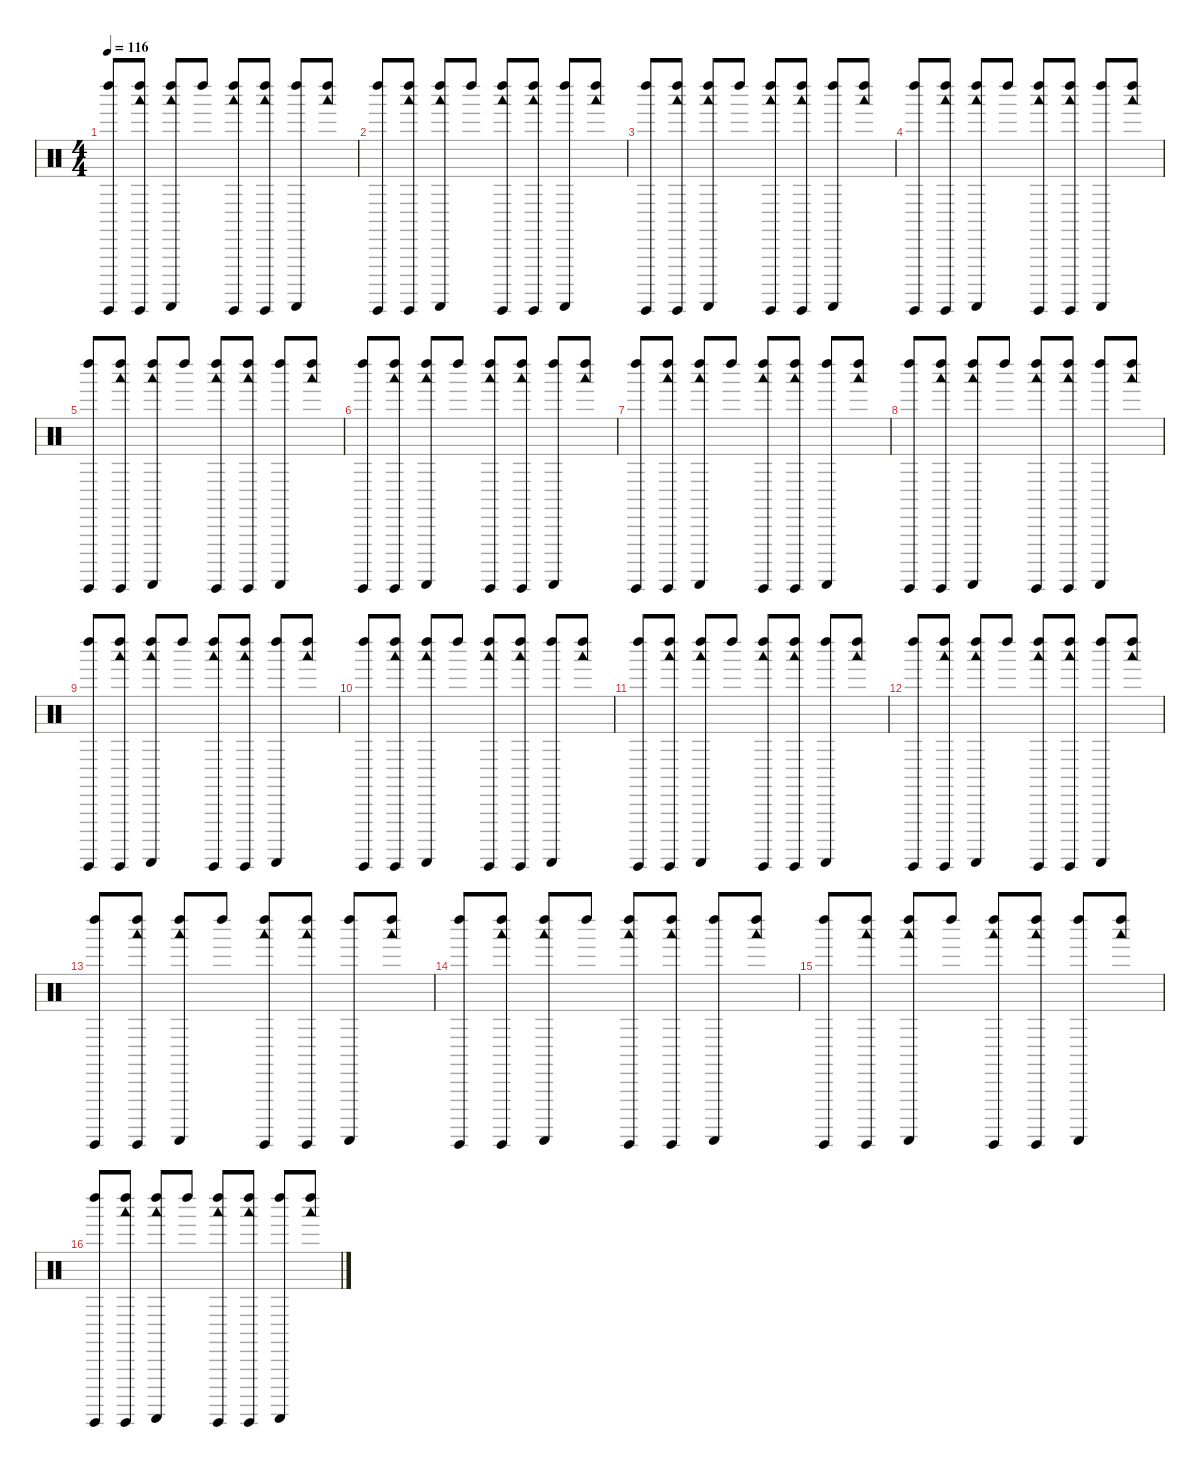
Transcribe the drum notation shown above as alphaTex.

\defaultSystemsLayout 4
\hideDynamics
\bracketExtendMode nobrackets
\singleTrackTrackNamePolicy hidden
\multiTrackTrackNamePolicy hidden
\firstSystemTrackNameMode fullname
\firstSystemTrackNameOrientation horizontal
\otherSystemsTrackNameOrientation horizontal
\track ("Percussions" "drm.") {instrument percussion}
\staff {score}
\articulation defaults
\ts (4 4)
\tempo 116
\clef neutral
\ks c
("Guiro (hit)" "Left Maraca (hit)").8{dy f beam Up} ("Guiro (hit)" "Left Maraca (hit)" "Woodblock low (hit)").8{beam Up} ("Guiro (scrap-return)" "Left Maraca (hit)" "Woodblock low (hit)").8{beam Up} "Left Maraca (hit)".8{beam Up} ("Guiro (hit)" "Left Maraca (hit)" "Woodblock low (hit)").8{beam Up} ("Guiro (hit)" "Left Maraca (hit)" "Woodblock low (hit)").8{beam Up} ("Guiro (scrap-return)" "Left Maraca (hit)").8{beam Up} ("Left Maraca (hit)" "Woodblock low (hit)").8{beam Up} |
("Guiro (hit)" "Left Maraca (hit)").8{beam Up} ("Guiro (hit)" "Left Maraca (hit)" "Woodblock low (hit)").8{beam Up} ("Guiro (scrap-return)" "Left Maraca (hit)" "Woodblock low (hit)").8{beam Up} "Left Maraca (hit)".8{beam Up} ("Guiro (hit)" "Left Maraca (hit)" "Woodblock low (hit)").8{beam Up} ("Guiro (hit)" "Left Maraca (hit)" "Woodblock low (hit)").8{beam Up} ("Guiro (scrap-return)" "Left Maraca (hit)").8{beam Up} ("Left Maraca (hit)" "Woodblock low (hit)").8{beam Up} |
("Guiro (hit)" "Left Maraca (hit)").8{beam Up} ("Guiro (hit)" "Left Maraca (hit)" "Woodblock low (hit)").8{beam Up} ("Guiro (scrap-return)" "Left Maraca (hit)" "Woodblock low (hit)").8{beam Up} "Left Maraca (hit)".8{beam Up} ("Guiro (hit)" "Left Maraca (hit)" "Woodblock low (hit)").8{beam Up} ("Guiro (hit)" "Left Maraca (hit)" "Woodblock low (hit)").8{beam Up} ("Guiro (scrap-return)" "Left Maraca (hit)").8{beam Up} ("Left Maraca (hit)" "Woodblock low (hit)").8{beam Up} |
("Guiro (hit)" "Left Maraca (hit)").8{beam Up} ("Guiro (hit)" "Left Maraca (hit)" "Woodblock low (hit)").8{beam Up} ("Guiro (scrap-return)" "Left Maraca (hit)" "Woodblock low (hit)").8{beam Up} "Left Maraca (hit)".8{beam Up} ("Guiro (hit)" "Left Maraca (hit)" "Woodblock low (hit)").8{beam Up} ("Guiro (hit)" "Left Maraca (hit)" "Woodblock low (hit)").8{beam Up} ("Guiro (scrap-return)" "Left Maraca (hit)").8{beam Up} ("Left Maraca (hit)" "Woodblock low (hit)").8{beam Up} |
("Guiro (hit)" "Left Maraca (hit)").8{beam Up} ("Guiro (hit)" "Left Maraca (hit)" "Woodblock low (hit)").8{beam Up} ("Guiro (scrap-return)" "Left Maraca (hit)" "Woodblock low (hit)").8{beam Up} "Left Maraca (hit)".8{beam Up} ("Guiro (hit)" "Left Maraca (hit)" "Woodblock low (hit)").8{beam Up} ("Guiro (hit)" "Left Maraca (hit)" "Woodblock low (hit)").8{beam Up} ("Guiro (scrap-return)" "Left Maraca (hit)").8{beam Up} ("Left Maraca (hit)" "Woodblock low (hit)").8{beam Up} |
("Guiro (hit)" "Left Maraca (hit)").8{beam Up} ("Guiro (hit)" "Left Maraca (hit)" "Woodblock low (hit)").8{beam Up} ("Guiro (scrap-return)" "Left Maraca (hit)" "Woodblock low (hit)").8{beam Up} "Left Maraca (hit)".8{beam Up} ("Guiro (hit)" "Left Maraca (hit)" "Woodblock low (hit)").8{beam Up} ("Guiro (hit)" "Left Maraca (hit)" "Woodblock low (hit)").8{beam Up} ("Guiro (scrap-return)" "Left Maraca (hit)").8{beam Up} ("Left Maraca (hit)" "Woodblock low (hit)").8{beam Up} |
("Guiro (hit)" "Left Maraca (hit)").8{beam Up} ("Guiro (hit)" "Left Maraca (hit)" "Woodblock low (hit)").8{beam Up} ("Guiro (scrap-return)" "Left Maraca (hit)" "Woodblock low (hit)").8{beam Up} "Left Maraca (hit)".8{beam Up} ("Guiro (hit)" "Left Maraca (hit)" "Woodblock low (hit)").8{beam Up} ("Guiro (hit)" "Left Maraca (hit)" "Woodblock low (hit)").8{beam Up} ("Guiro (scrap-return)" "Left Maraca (hit)").8{beam Up} ("Left Maraca (hit)" "Woodblock low (hit)").8{beam Up} |
("Guiro (hit)" "Left Maraca (hit)").8{beam Up} ("Guiro (hit)" "Left Maraca (hit)" "Woodblock low (hit)").8{beam Up} ("Guiro (scrap-return)" "Left Maraca (hit)" "Woodblock low (hit)").8{beam Up} "Left Maraca (hit)".8{beam Up} ("Guiro (hit)" "Left Maraca (hit)" "Woodblock low (hit)").8{beam Up} ("Guiro (hit)" "Left Maraca (hit)" "Woodblock low (hit)").8{beam Up} ("Guiro (scrap-return)" "Left Maraca (hit)").8{beam Up} ("Left Maraca (hit)" "Woodblock low (hit)").8{beam Up} |
("Guiro (hit)" "Left Maraca (hit)").8{beam Up} ("Guiro (hit)" "Left Maraca (hit)" "Woodblock low (hit)").8{beam Up} ("Guiro (scrap-return)" "Left Maraca (hit)" "Woodblock low (hit)").8{beam Up} "Left Maraca (hit)".8{beam Up} ("Guiro (hit)" "Left Maraca (hit)" "Woodblock low (hit)").8{beam Up} ("Guiro (hit)" "Left Maraca (hit)" "Woodblock low (hit)").8{beam Up} ("Guiro (scrap-return)" "Left Maraca (hit)").8{beam Up} ("Left Maraca (hit)" "Woodblock low (hit)").8{beam Up} |
("Guiro (hit)" "Left Maraca (hit)").8{beam Up} ("Guiro (hit)" "Left Maraca (hit)" "Woodblock low (hit)").8{beam Up} ("Guiro (scrap-return)" "Left Maraca (hit)" "Woodblock low (hit)").8{beam Up} "Left Maraca (hit)".8{beam Up} ("Guiro (hit)" "Left Maraca (hit)" "Woodblock low (hit)").8{beam Up} ("Guiro (hit)" "Left Maraca (hit)" "Woodblock low (hit)").8{beam Up} ("Guiro (scrap-return)" "Left Maraca (hit)").8{beam Up} ("Left Maraca (hit)" "Woodblock low (hit)").8{beam Up} |
("Guiro (hit)" "Left Maraca (hit)").8{beam Up} ("Guiro (hit)" "Left Maraca (hit)" "Woodblock low (hit)").8{beam Up} ("Guiro (scrap-return)" "Left Maraca (hit)" "Woodblock low (hit)").8{beam Up} "Left Maraca (hit)".8{beam Up} ("Guiro (hit)" "Left Maraca (hit)" "Woodblock low (hit)").8{beam Up} ("Guiro (hit)" "Left Maraca (hit)" "Woodblock low (hit)").8{beam Up} ("Guiro (scrap-return)" "Left Maraca (hit)").8{beam Up} ("Left Maraca (hit)" "Woodblock low (hit)").8{beam Up} |
("Guiro (hit)" "Left Maraca (hit)").8{beam Up} ("Guiro (hit)" "Left Maraca (hit)" "Woodblock low (hit)").8{beam Up} ("Guiro (scrap-return)" "Left Maraca (hit)" "Woodblock low (hit)").8{beam Up} "Left Maraca (hit)".8{beam Up} ("Guiro (hit)" "Left Maraca (hit)" "Woodblock low (hit)").8{beam Up} ("Guiro (hit)" "Left Maraca (hit)" "Woodblock low (hit)").8{beam Up} ("Guiro (scrap-return)" "Left Maraca (hit)").8{beam Up} ("Left Maraca (hit)" "Woodblock low (hit)").8{beam Up} |
("Guiro (hit)" "Left Maraca (hit)").8{beam Up} ("Guiro (hit)" "Left Maraca (hit)" "Woodblock low (hit)").8{beam Up} ("Guiro (scrap-return)" "Left Maraca (hit)" "Woodblock low (hit)").8{beam Up} "Left Maraca (hit)".8{beam Up} ("Guiro (hit)" "Left Maraca (hit)" "Woodblock low (hit)").8{beam Up} ("Guiro (hit)" "Left Maraca (hit)" "Woodblock low (hit)").8{beam Up} ("Guiro (scrap-return)" "Left Maraca (hit)").8{beam Up} ("Left Maraca (hit)" "Woodblock low (hit)").8{beam Up} |
("Guiro (hit)" "Left Maraca (hit)").8{beam Up} ("Guiro (hit)" "Left Maraca (hit)" "Woodblock low (hit)").8{beam Up} ("Guiro (scrap-return)" "Left Maraca (hit)" "Woodblock low (hit)").8{beam Up} "Left Maraca (hit)".8{beam Up} ("Guiro (hit)" "Left Maraca (hit)" "Woodblock low (hit)").8{beam Up} ("Guiro (hit)" "Left Maraca (hit)" "Woodblock low (hit)").8{beam Up} ("Guiro (scrap-return)" "Left Maraca (hit)").8{beam Up} ("Left Maraca (hit)" "Woodblock low (hit)").8{beam Up} |
("Guiro (hit)" "Left Maraca (hit)").8{beam Up} ("Guiro (hit)" "Left Maraca (hit)" "Woodblock low (hit)").8{beam Up} ("Guiro (scrap-return)" "Left Maraca (hit)" "Woodblock low (hit)").8{beam Up} "Left Maraca (hit)".8{beam Up} ("Guiro (hit)" "Left Maraca (hit)" "Woodblock low (hit)").8{beam Up} ("Guiro (hit)" "Left Maraca (hit)" "Woodblock low (hit)").8{beam Up} ("Guiro (scrap-return)" "Left Maraca (hit)").8{beam Up} ("Left Maraca (hit)" "Woodblock low (hit)").8{beam Up} |
("Guiro (hit)" "Left Maraca (hit)").8{beam Up} ("Guiro (hit)" "Left Maraca (hit)" "Woodblock low (hit)").8{beam Up} ("Guiro (scrap-return)" "Left Maraca (hit)" "Woodblock low (hit)").8{beam Up} "Left Maraca (hit)".8{beam Up} ("Guiro (hit)" "Left Maraca (hit)" "Woodblock low (hit)").8{beam Up} ("Guiro (hit)" "Left Maraca (hit)" "Woodblock low (hit)").8{beam Up} ("Guiro (scrap-return)" "Left Maraca (hit)").8{beam Up} ("Left Maraca (hit)" "Woodblock low (hit)").8{beam Up}
